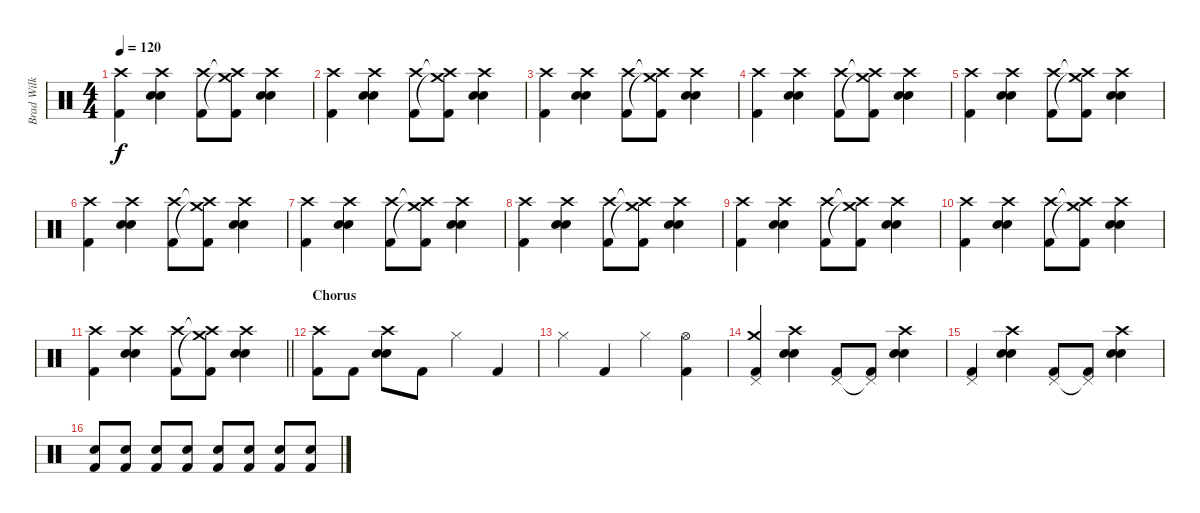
\track ("Brad Wilk" "Brad Wilk") {instrument percussion}
\staff {score}
\articulation defaults
\ts (4 4)
\tempo 120
\clef neutral
\ks c
("Crash high (hit)" "Kick (hit) 2").4{dy f} ("Electric Snare (hit)" "Snare (hit) 2" "Crash high (hit)").4 ("Crash high (hit)" "Kick (hit) 2").8 ("Crash high (hit)"{t} "Crash medium (hit)"{t} "Kick (hit) 2").8 ("Electric Snare (hit)" "Snare (hit) 2" "Crash high (hit)").4 |
("Crash high (hit)" "Kick (hit) 2").4 ("Electric Snare (hit)" "Snare (hit) 2" "Crash high (hit)").4 ("Crash high (hit)" "Kick (hit) 2").8 ("Crash high (hit)"{t} "Crash medium (hit)"{t} "Kick (hit) 2").8 ("Electric Snare (hit)" "Snare (hit) 2" "Crash high (hit)").4 |
("Crash high (hit)" "Kick (hit) 2").4 ("Electric Snare (hit)" "Snare (hit) 2" "Crash high (hit)").4 ("Crash high (hit)" "Kick (hit) 2").8 ("Crash high (hit)"{t} "Crash medium (hit)"{t} "Kick (hit) 2").8 ("Electric Snare (hit)" "Snare (hit) 2" "Crash high (hit)").4 |
("Crash high (hit)" "Kick (hit) 2").4 ("Electric Snare (hit)" "Snare (hit) 2" "Crash high (hit)").4 ("Crash high (hit)" "Kick (hit) 2").8 ("Crash high (hit)"{t} "Crash medium (hit)"{t} "Kick (hit) 2").8 ("Electric Snare (hit)" "Snare (hit) 2" "Crash high (hit)").4 |
("Crash high (hit)" "Kick (hit) 2").4 ("Electric Snare (hit)" "Snare (hit) 2" "Crash high (hit)").4 ("Crash high (hit)" "Kick (hit) 2").8 ("Crash high (hit)"{t} "Crash medium (hit)"{t} "Kick (hit) 2").8 ("Electric Snare (hit)" "Snare (hit) 2" "Crash high (hit)").4 |
("Crash high (hit)" "Kick (hit) 2").4 ("Electric Snare (hit)" "Snare (hit) 2" "Crash high (hit)").4 ("Crash high (hit)" "Kick (hit) 2").8 ("Crash high (hit)"{t} "Crash medium (hit)"{t} "Kick (hit) 2").8 ("Electric Snare (hit)" "Snare (hit) 2" "Crash high (hit)").4 |
("Crash high (hit)" "Kick (hit) 2").4 ("Electric Snare (hit)" "Snare (hit) 2" "Crash high (hit)").4 ("Crash high (hit)" "Kick (hit) 2").8 ("Crash high (hit)"{t} "Crash medium (hit)"{t} "Kick (hit) 2").8 ("Electric Snare (hit)" "Snare (hit) 2" "Crash high (hit)").4 |
("Crash high (hit)" "Kick (hit) 2").4 ("Electric Snare (hit)" "Snare (hit) 2" "Crash high (hit)").4 ("Crash high (hit)" "Kick (hit) 2").8 ("Crash high (hit)"{t} "Crash medium (hit)"{t} "Kick (hit) 2").8 ("Electric Snare (hit)" "Snare (hit) 2" "Crash high (hit)").4 |
("Crash high (hit)" "Kick (hit) 2").4 ("Electric Snare (hit)" "Snare (hit) 2" "Crash high (hit)").4 ("Crash high (hit)" "Kick (hit) 2").8 ("Crash high (hit)"{t} "Crash medium (hit)"{t} "Kick (hit) 2").8 ("Electric Snare (hit)" "Snare (hit) 2" "Crash high (hit)").4 |
("Crash high (hit)" "Kick (hit) 2").4 ("Electric Snare (hit)" "Snare (hit) 2" "Crash high (hit)").4 ("Crash high (hit)" "Kick (hit) 2").8 ("Crash high (hit)"{t} "Crash medium (hit)"{t} "Kick (hit) 2").8 ("Electric Snare (hit)" "Snare (hit) 2" "Crash high (hit)").4 |
\barLineRight lightlight
("Crash high (hit)" "Kick (hit) 2").4 ("Electric Snare (hit)" "Snare (hit) 2" "Crash high (hit)").4 ("Crash high (hit)" "Kick (hit) 2").8 ("Crash high (hit)"{t} "Crash medium (hit)"{t} "Kick (hit) 2").8 ("Electric Snare (hit)" "Snare (hit) 2" "Crash high (hit)").4 |
\section ("" "Chorus")
("Crash high (hit)" "Kick (hit) 2").8 "Kick (hit) 2".8 ("Electric Snare (hit)" "Snare (hit) 2" "Crash high (hit)").8 "Kick (hit) 2".8 "Hi-Hat (closed)".4 "Kick (hit) 2".4 |
"Hi-Hat (closed)".4 "Kick (hit) 2".4 "Hi-Hat (closed)".4 ("Hi-Hat (open)" "Kick (hit) 2").4 |
("Crash medium (hit)" "Pedal Hi-Hat (hit)" "Kick (hit) 2").4 ("Electric Snare (hit)" "Snare (hit) 2" "Crash high (hit)").4 ("Pedal Hi-Hat (hit)" "Kick (hit) 2").8 ("Pedal Hi-Hat (hit)"{t} "Kick (hit) 2").8 ("Electric Snare (hit)" "Snare (hit) 2" "Crash high (hit)").4 |
("Pedal Hi-Hat (hit)" "Kick (hit) 2").4 ("Electric Snare (hit)" "Snare (hit) 2" "Crash high (hit)").4 ("Pedal Hi-Hat (hit)" "Kick (hit) 2").8 ("Pedal Hi-Hat (hit)"{t} "Kick (hit) 2").8 ("Electric Snare (hit)" "Snare (hit) 2" "Crash high (hit)").4 |
("Electric Snare (hit)" "Kick (hit) 2").8 ("Electric Snare (hit)" "Kick (hit) 2").8 ("Electric Snare (hit)" "Kick (hit) 2").8 ("Electric Snare (hit)" "Kick (hit) 2").8 ("Electric Snare (hit)" "Kick (hit) 2").8 ("Electric Snare (hit)" "Kick (hit) 2").8 ("Electric Snare (hit)" "Kick (hit) 2").8 ("Electric Snare (hit)" "Kick (hit) 2").8
